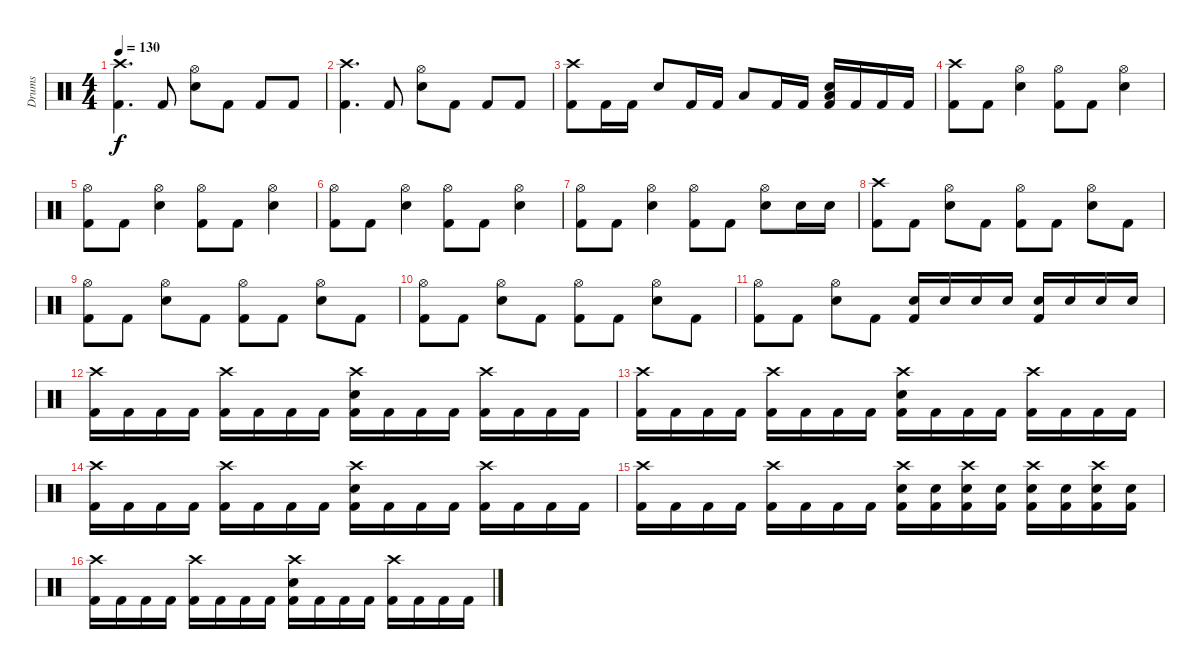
\track ("Drums" "Drums") {instrument percussion}
\staff {score}
\articulation defaults
\ts (4 4)
\tempo 130
\clef neutral
\ks c
("Crash high (hit)" "Kick (hit) 2").4{d dy f} "Kick (hit) 2".8 ("Hi-Hat (open)" "Electric Snare (hit)").8 "Kick (hit) 2".8 "Kick (hit) 2".8 "Kick (hit) 2".8 |
("Crash high (hit)" "Kick (hit) 2").4{d} "Kick (hit) 2".8 ("Hi-Hat (open)" "Electric Snare (hit)").8 "Kick (hit) 2".8 "Kick (hit) 2".8 "Kick (hit) 2".8 |
("Crash high (hit)" "Kick (hit) 2").8 "Kick (hit) 2".16 "Kick (hit) 2".16 "Electric Snare (hit)".8 "Kick (hit) 2".16 "Kick (hit) 2".16 "Low Tom (hit)".8 "Kick (hit) 2".16 "Kick (hit) 2".16 ("Low Floor Tom (hit)" "Electric Snare (hit)" "Kick (hit) 2").16 "Kick (hit) 2".16 "Kick (hit) 2".16 "Kick (hit) 2".16 |
("Crash high (hit)" "Kick (hit) 2").8 "Kick (hit) 2".8 ("Hi-Hat (open)" "Electric Snare (hit)").4 ("Hi-Hat (open)" "Kick (hit) 2").8 "Kick (hit) 2".8 ("Hi-Hat (open)" "Electric Snare (hit)").4 |
("Hi-Hat (open)" "Kick (hit) 2").8 "Kick (hit) 2".8 ("Hi-Hat (open)" "Electric Snare (hit)").4 ("Hi-Hat (open)" "Kick (hit) 2").8 "Kick (hit) 2".8 ("Hi-Hat (open)" "Electric Snare (hit)").4 |
("Hi-Hat (open)" "Kick (hit) 2").8 "Kick (hit) 2".8 ("Hi-Hat (open)" "Electric Snare (hit)").4 ("Hi-Hat (open)" "Kick (hit) 2").8 "Kick (hit) 2".8 ("Hi-Hat (open)" "Electric Snare (hit)").4 |
("Hi-Hat (open)" "Kick (hit) 2").8 "Kick (hit) 2".8 ("Hi-Hat (open)" "Electric Snare (hit)").4 ("Hi-Hat (open)" "Kick (hit) 2").8 "Kick (hit) 2".8 ("Hi-Hat (open)" "Electric Snare (hit)").8 "Electric Snare (hit)".16 "Electric Snare (hit)".16 |
("Crash high (hit)" "Kick (hit) 2").8 "Kick (hit) 2".8 ("Hi-Hat (open)" "Electric Snare (hit)").8 "Kick (hit) 2".8 ("Hi-Hat (open)" "Kick (hit) 2").8 "Kick (hit) 2".8 ("Hi-Hat (open)" "Electric Snare (hit)").8 "Kick (hit) 2".8 |
("Hi-Hat (open)" "Kick (hit) 2").8 "Kick (hit) 2".8 ("Hi-Hat (open)" "Electric Snare (hit)").8 "Kick (hit) 2".8 ("Hi-Hat (open)" "Kick (hit) 2").8 "Kick (hit) 2".8 ("Hi-Hat (open)" "Electric Snare (hit)").8 "Kick (hit) 2".8 |
("Hi-Hat (open)" "Kick (hit) 2").8 "Kick (hit) 2".8 ("Hi-Hat (open)" "Electric Snare (hit)").8 "Kick (hit) 2".8 ("Hi-Hat (open)" "Kick (hit) 2").8 "Kick (hit) 2".8 ("Hi-Hat (open)" "Electric Snare (hit)").8 "Kick (hit) 2".8 |
("Hi-Hat (open)" "Kick (hit) 2").8 "Kick (hit) 2".8 ("Hi-Hat (open)" "Electric Snare (hit)").8 "Kick (hit) 2".8 ("Electric Snare (hit)" "Kick (hit) 2").16 "Electric Snare (hit)".16 "Electric Snare (hit)".16 "Electric Snare (hit)".16 ("Electric Snare (hit)" "Kick (hit) 2").16 "Electric Snare (hit)".16 "Electric Snare (hit)".16 "Electric Snare (hit)".16 |
("Crash high (hit)" "Kick (hit) 2").16 "Kick (hit) 2".16 "Kick (hit) 2".16 "Kick (hit) 2".16 ("Crash high (hit)" "Kick (hit) 2").16 "Kick (hit) 2".16 "Kick (hit) 2".16 "Kick (hit) 2".16 ("Crash high (hit)" "Electric Snare (hit)" "Kick (hit) 2").16 "Kick (hit) 2".16 "Kick (hit) 2".16 "Kick (hit) 2".16 ("Crash high (hit)" "Kick (hit) 2").16 "Kick (hit) 2".16 "Kick (hit) 2".16 "Kick (hit) 2".16 |
("Crash high (hit)" "Kick (hit) 2").16 "Kick (hit) 2".16 "Kick (hit) 2".16 "Kick (hit) 2".16 ("Crash high (hit)" "Kick (hit) 2").16 "Kick (hit) 2".16 "Kick (hit) 2".16 "Kick (hit) 2".16 ("Crash high (hit)" "Electric Snare (hit)" "Kick (hit) 2").16 "Kick (hit) 2".16 "Kick (hit) 2".16 "Kick (hit) 2".16 ("Crash high (hit)" "Kick (hit) 2").16 "Kick (hit) 2".16 "Kick (hit) 2".16 "Kick (hit) 2".16 |
("Crash high (hit)" "Kick (hit) 2").16 "Kick (hit) 2".16 "Kick (hit) 2".16 "Kick (hit) 2".16 ("Crash high (hit)" "Kick (hit) 2").16 "Kick (hit) 2".16 "Kick (hit) 2".16 "Kick (hit) 2".16 ("Crash high (hit)" "Electric Snare (hit)" "Kick (hit) 2").16 "Kick (hit) 2".16 "Kick (hit) 2".16 "Kick (hit) 2".16 ("Crash high (hit)" "Kick (hit) 2").16 "Kick (hit) 2".16 "Kick (hit) 2".16 "Kick (hit) 2".16 |
("Crash high (hit)" "Kick (hit) 2").16 "Kick (hit) 2".16 "Kick (hit) 2".16 "Kick (hit) 2".16 ("Crash high (hit)" "Kick (hit) 2").16 "Kick (hit) 2".16 "Kick (hit) 2".16 "Kick (hit) 2".16 ("Crash high (hit)" "Electric Snare (hit)" "Kick (hit) 2").16 ("Electric Snare (hit)" "Kick (hit) 2").16 ("Crash high (hit)" "Electric Snare (hit)" "Kick (hit) 2").16 ("Electric Snare (hit)" "Kick (hit) 2").16 ("Crash high (hit)" "Electric Snare (hit)" "Kick (hit) 2").16 ("Electric Snare (hit)" "Kick (hit) 2").16 ("Crash high (hit)" "Electric Snare (hit)" "Kick (hit) 2").16 ("Electric Snare (hit)" "Kick (hit) 2").16 |
("Crash high (hit)" "Kick (hit) 2").16 "Kick (hit) 2".16 "Kick (hit) 2".16 "Kick (hit) 2".16 ("Crash high (hit)" "Kick (hit) 2").16 "Kick (hit) 2".16 "Kick (hit) 2".16 "Kick (hit) 2".16 ("Crash high (hit)" "Electric Snare (hit)" "Kick (hit) 2").16 "Kick (hit) 2".16 "Kick (hit) 2".16 "Kick (hit) 2".16 ("Crash high (hit)" "Kick (hit) 2").16 "Kick (hit) 2".16 "Kick (hit) 2".16 "Kick (hit) 2".16
